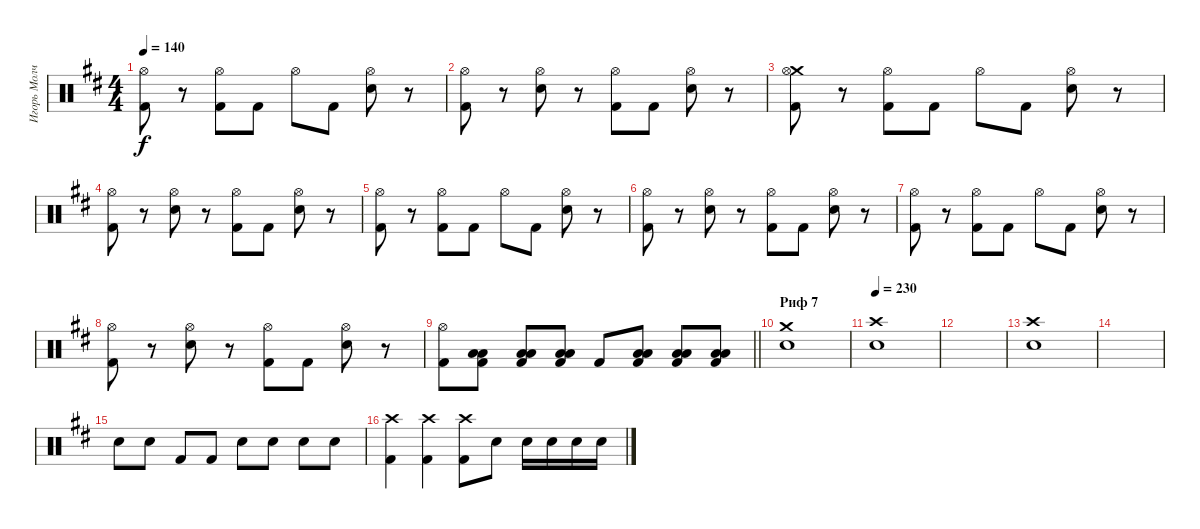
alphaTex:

\track ("Игорь Молчанов" "Игорь Молч") {instrument percussion}
\staff {score}
\articulation defaults
\ts (4 4)
\tempo 140
\clef neutral
\ks d
("Hi-Hat (open)" "Kick (hit) 2").8{dy f} r.8 ("Hi-Hat (open)" "Kick (hit) 2").8 "Kick (hit) 2".8 "Hi-Hat (open)".8 "Kick (hit) 2".8 ("Hi-Hat (open)" "Snare (hit) 2").8 r.8 |
("Hi-Hat (open)" "Kick (hit) 2").8 r.8 ("Hi-Hat (open)" "Snare (hit) 2").8 r.8 ("Hi-Hat (open)" "Kick (hit) 2").8 "Kick (hit) 2".8 ("Hi-Hat (open)" "Snare (hit) 2").8 r.8 |
("Crash medium (hit)" "Hi-Hat (open)" "Kick (hit) 2").8 r.8 ("Hi-Hat (open)" "Kick (hit) 2").8 "Kick (hit) 2".8 "Hi-Hat (open)".8 "Kick (hit) 2".8 ("Hi-Hat (open)" "Snare (hit) 2").8 r.8 |
("Hi-Hat (open)" "Kick (hit) 2").8 r.8 ("Hi-Hat (open)" "Snare (hit) 2").8 r.8 ("Hi-Hat (open)" "Kick (hit) 2").8 "Kick (hit) 2".8 ("Hi-Hat (open)" "Snare (hit) 2").8 r.8 |
("Hi-Hat (open)" "Kick (hit) 2").8 r.8 ("Hi-Hat (open)" "Kick (hit) 2").8 "Kick (hit) 2".8 "Hi-Hat (open)".8 "Kick (hit) 2".8 ("Hi-Hat (open)" "Snare (hit) 2").8 r.8 |
("Hi-Hat (open)" "Kick (hit) 2").8 r.8 ("Hi-Hat (open)" "Snare (hit) 2").8 r.8 ("Hi-Hat (open)" "Kick (hit) 2").8 "Kick (hit) 2".8 ("Hi-Hat (open)" "Snare (hit) 2").8 r.8 |
("Hi-Hat (open)" "Kick (hit) 2").8 r.8 ("Hi-Hat (open)" "Kick (hit) 2").8 "Kick (hit) 2".8 "Hi-Hat (open)".8 "Kick (hit) 2".8 ("Hi-Hat (open)" "Snare (hit) 2").8 r.8 |
("Hi-Hat (open)" "Kick (hit) 2").8 r.8 ("Hi-Hat (open)" "Snare (hit) 2").8 r.8 ("Hi-Hat (open)" "Kick (hit) 2").8 "Kick (hit) 2".8 ("Hi-Hat (open)" "Snare (hit) 2").8 r.8 |
\barLineRight lightlight
("Hi-Hat (open)" "Kick (hit) 2").8 ("Low Tom (hit)" "Low Tom (hit)" "Kick (hit) 2").8 ("Low Tom (hit)" "Low Tom (hit)" "Kick (hit) 2").8 ("Low Tom (hit)" "Low Tom (hit)" "Kick (hit) 2").8 "Kick (hit) 2".8 ("Low Floor Tom (hit)" "Low Floor Tom (hit)" "Kick (hit) 2").8 ("Low Floor Tom (hit)" "Low Floor Tom (hit)" "Kick (hit) 2").8 ("Low Floor Tom (hit)" "Low Floor Tom (hit)" "Kick (hit) 2").8 |
\section ("" "Риф 7")
("Crash medium (hit)" "Snare (hit) 2").1 |
\tempo 230
("Crash high (hit)" "Snare (hit) 2").1 |
|
("Crash high (hit)" "Snare (hit) 2").1 |
|
"Electric Snare (hit)".8 "Electric Snare (hit)".8 "Kick (hit) 2".8 "Kick (hit) 2".8 "Electric Snare (hit)".8 "Electric Snare (hit)".8 "Electric Snare (hit)".8 "Electric Snare (hit)".8 |
("Crash high (hit)" "Kick (hit) 2").4 ("Crash high (hit)" "Kick (hit) 2").4 ("Crash high (hit)" "Kick (hit) 2").8 "Electric Snare (hit)".8 "Electric Snare (hit)".16 "Electric Snare (hit)".16 "Electric Snare (hit)".16 "Electric Snare (hit)".16
